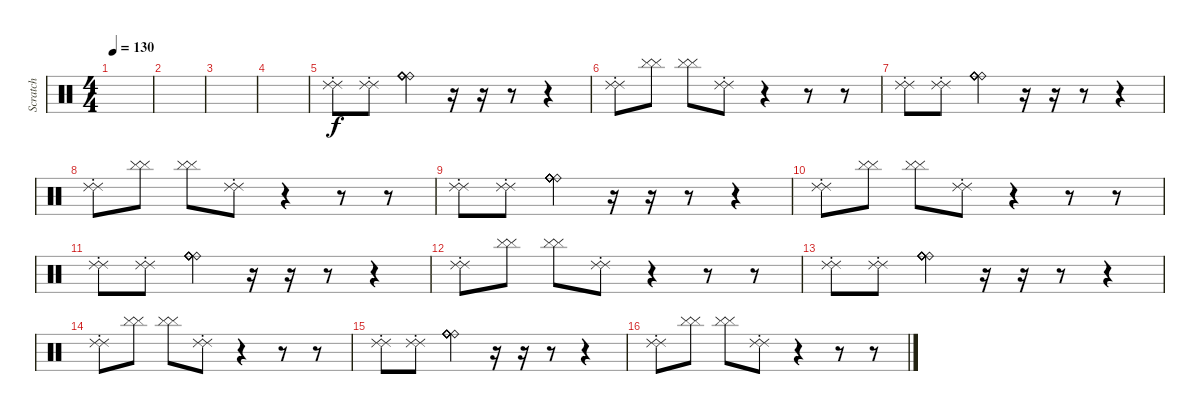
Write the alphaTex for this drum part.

\track ("Scratch" "Scratch") {instrument percussion}
\staff {score}
\articulation defaults
\ts (4 4)
\tempo 130
\clef neutral
\ks c
|
|
|
|
("Ride (choke) 2" "Ride (choke) 2").8 ("Ride (choke) 2" "Ride (choke) 2").8 ("Ride (bell)" "Ride (bell)" "Ride (bell)" "Ride (bell)" "Ride (bell)" "Ride (bell)").4 r.16 r.16 r.8 r.4 |
("Ride (choke) 2" "Ride (choke) 2").8 ("Cymbal (hit)" "Cymbal (hit)").8 ("Cymbal (hit)" "Cymbal (hit)").8 ("Ride (choke) 2" "Ride (choke) 2").8 r.4 r.8 r.8 |
("Ride (choke) 2" "Ride (choke) 2").8 ("Ride (choke) 2" "Ride (choke) 2").8 ("Ride (bell)" "Ride (bell)" "Ride (bell)" "Ride (bell)" "Ride (bell)" "Ride (bell)").4 r.16 r.16 r.8 r.4 |
("Ride (choke) 2" "Ride (choke) 2").8 ("Cymbal (hit)" "Cymbal (hit)").8 ("Cymbal (hit)" "Cymbal (hit)").8 ("Ride (choke) 2" "Ride (choke) 2").8 r.4 r.8 r.8 |
("Ride (choke) 2" "Ride (choke) 2").8 ("Ride (choke) 2" "Ride (choke) 2").8 ("Ride (bell)" "Ride (bell)" "Ride (bell)" "Ride (bell)" "Ride (bell)" "Ride (bell)").4 r.16 r.16 r.8 r.4 |
("Ride (choke) 2" "Ride (choke) 2").8 ("Cymbal (hit)" "Cymbal (hit)").8 ("Cymbal (hit)" "Cymbal (hit)").8 ("Ride (choke) 2" "Ride (choke) 2").8 r.4 r.8 r.8 |
("Ride (choke) 2" "Ride (choke) 2").8 ("Ride (choke) 2" "Ride (choke) 2").8 ("Ride (bell)" "Ride (bell)" "Ride (bell)" "Ride (bell)" "Ride (bell)" "Ride (bell)").4 r.16 r.16 r.8 r.4 |
("Ride (choke) 2" "Ride (choke) 2").8 ("Cymbal (hit)" "Cymbal (hit)").8 ("Cymbal (hit)" "Cymbal (hit)").8 ("Ride (choke) 2" "Ride (choke) 2").8 r.4 r.8 r.8 |
("Ride (choke) 2" "Ride (choke) 2").8 ("Ride (choke) 2" "Ride (choke) 2").8 ("Ride (bell)" "Ride (bell)" "Ride (bell)" "Ride (bell)" "Ride (bell)" "Ride (bell)").4 r.16 r.16 r.8 r.4 |
("Ride (choke) 2" "Ride (choke) 2").8 ("Cymbal (hit)" "Cymbal (hit)").8 ("Cymbal (hit)" "Cymbal (hit)").8 ("Ride (choke) 2" "Ride (choke) 2").8 r.4 r.8 r.8 |
("Ride (choke) 2" "Ride (choke) 2").8 ("Ride (choke) 2" "Ride (choke) 2").8 ("Ride (bell)" "Ride (bell)" "Ride (bell)" "Ride (bell)" "Ride (bell)" "Ride (bell)").4 r.16 r.16 r.8 r.4 |
("Ride (choke) 2" "Ride (choke) 2").8 ("Cymbal (hit)" "Cymbal (hit)").8 ("Cymbal (hit)" "Cymbal (hit)").8 ("Ride (choke) 2" "Ride (choke) 2").8 r.4 r.8 r.8
